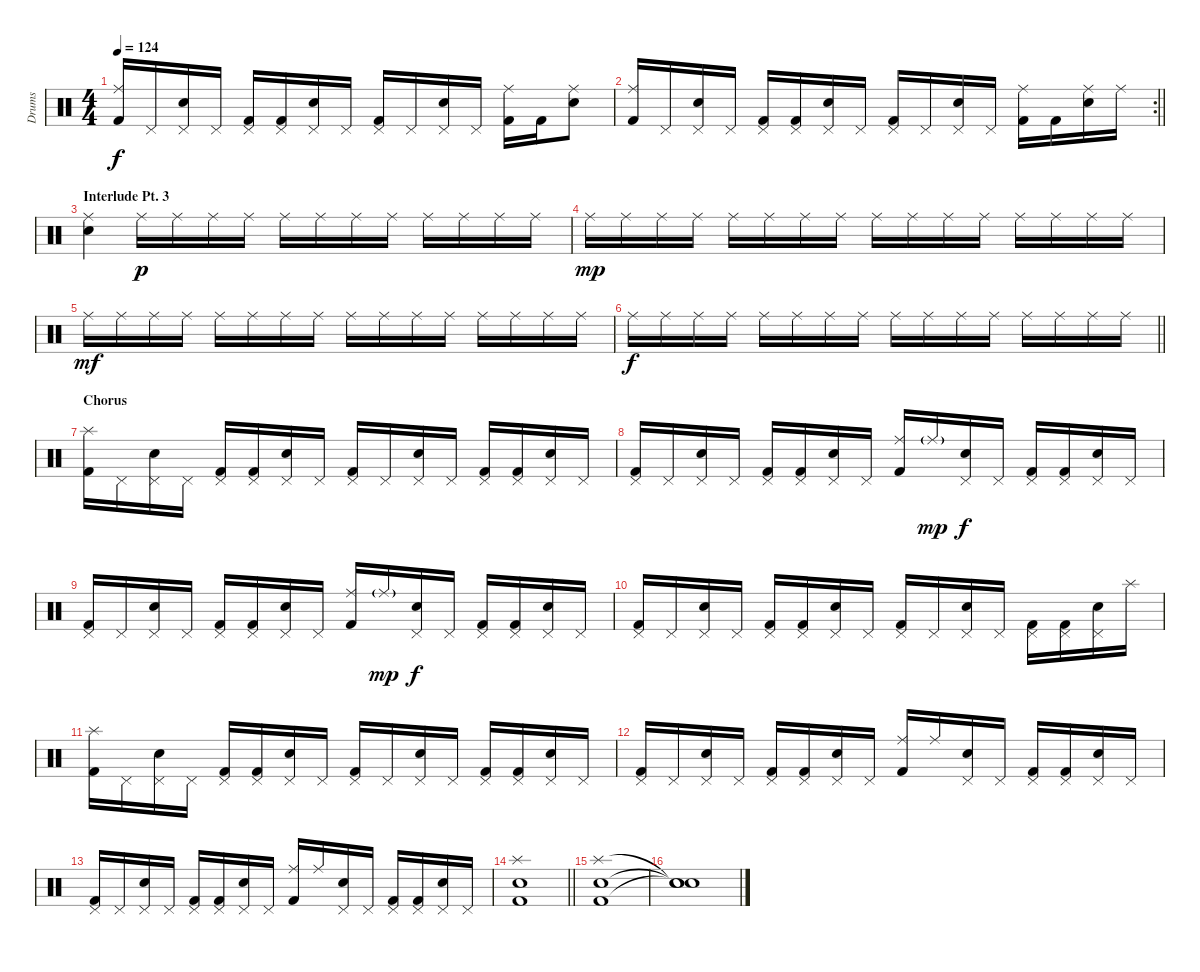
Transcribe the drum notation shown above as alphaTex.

\track ("Drums" "Drums") {instrument percussion}
\staff {score}
\articulation defaults
\ts (4 4)
\tempo 124
\clef neutral
\ks c
("Ride (middle)" "Kick (hit) 2").16{dy f} "Pedal Hi-Hat (hit)".16 ("Pedal Hi-Hat (hit)" "Electric Snare (hit)").16 "Pedal Hi-Hat (hit)".16 ("Pedal Hi-Hat (hit)" "Kick (hit) 2").16 ("Pedal Hi-Hat (hit)" "Kick (hit) 2").16 ("Pedal Hi-Hat (hit)" "Electric Snare (hit)").16 "Pedal Hi-Hat (hit)".16 ("Pedal Hi-Hat (hit)" "Kick (hit) 2").16 "Pedal Hi-Hat (hit)".16 ("Pedal Hi-Hat (hit)" "Electric Snare (hit)").16 "Pedal Hi-Hat (hit)".16 ("Ride (middle)" "Kick (hit) 2").16 "Kick (hit) 2".16 ("Ride (middle)" "Electric Snare (hit)").8 |
\rc 2
\barLineRight lightlight
("Ride (middle)" "Kick (hit) 2").16 "Pedal Hi-Hat (hit)".16 ("Pedal Hi-Hat (hit)" "Electric Snare (hit)").16 "Pedal Hi-Hat (hit)".16 ("Pedal Hi-Hat (hit)" "Kick (hit) 2").16 ("Pedal Hi-Hat (hit)" "Kick (hit) 2").16 ("Pedal Hi-Hat (hit)" "Electric Snare (hit)").16 "Pedal Hi-Hat (hit)".16 ("Pedal Hi-Hat (hit)" "Kick (hit) 2").16 "Pedal Hi-Hat (hit)".16 ("Pedal Hi-Hat (hit)" "Electric Snare (hit)").16 "Pedal Hi-Hat (hit)".16 ("Ride (middle)" "Kick (hit) 2").16 "Kick (hit) 2".16 ("Ride (middle)" "Electric Snare (hit)").16 "Ride (middle)".16 |
\section ("" "Interlude Pt. 3")
("Ride (middle)" "Electric Snare (hit)").4 "Ride (middle)".16{dy p} "Ride (middle)".16 "Ride (middle)".16 "Ride (middle)".16 "Ride (middle)".16 "Ride (middle)".16 "Ride (middle)".16 "Ride (middle)".16 "Ride (middle)".16 "Ride (middle)".16 "Ride (middle)".16 "Ride (middle)".16 |
"Ride (middle)".16{dy mp} "Ride (middle)".16 "Ride (middle)".16 "Ride (middle)".16 "Ride (middle)".16 "Ride (middle)".16 "Ride (middle)".16 "Ride (middle)".16 "Ride (middle)".16 "Ride (middle)".16 "Ride (middle)".16 "Ride (middle)".16 "Ride (middle)".16 "Ride (middle)".16 "Ride (middle)".16 "Ride (middle)".16 |
"Ride (middle)".16{dy mf} "Ride (middle)".16 "Ride (middle)".16 "Ride (middle)".16 "Ride (middle)".16 "Ride (middle)".16 "Ride (middle)".16 "Ride (middle)".16 "Ride (middle)".16 "Ride (middle)".16 "Ride (middle)".16 "Ride (middle)".16 "Ride (middle)".16 "Ride (middle)".16 "Ride (middle)".16 "Ride (middle)".16 |
\barLineRight lightlight "Ride (middle)".16{dy f} "Ride (middle)".16 "Ride (middle)".16 "Ride (middle)".16 "Ride (middle)".16 "Ride (middle)".16 "Ride (middle)".16 "Ride (middle)".16 "Ride (middle)".16 "Ride (middle)".16 "Ride (middle)".16 "Ride (middle)".16 "Ride (middle)".16 "Ride (middle)".16 "Ride (middle)".16 "Ride (middle)".16
|
\section ("" "Chorus")
("Splash (hit)" "Kick (hit) 2").16 "Pedal Hi-Hat (hit)".16 ("Pedal Hi-Hat (hit)" "Electric Snare (hit)").16 "Pedal Hi-Hat (hit)".16 ("Pedal Hi-Hat (hit)" "Kick (hit) 2").16 ("Pedal Hi-Hat (hit)" "Kick (hit) 2").16 ("Pedal Hi-Hat (hit)" "Electric Snare (hit)").16 "Pedal Hi-Hat (hit)".16 ("Pedal Hi-Hat (hit)" "Kick (hit) 2").16 "Pedal Hi-Hat (hit)".16 ("Pedal Hi-Hat (hit)" "Electric Snare (hit)").16 "Pedal Hi-Hat (hit)".16 ("Pedal Hi-Hat (hit)" "Kick (hit) 2").16 ("Pedal Hi-Hat (hit)" "Kick (hit) 2").16 ("Pedal Hi-Hat (hit)" "Electric Snare (hit)").16 "Pedal Hi-Hat (hit)".16 |
("Pedal Hi-Hat (hit)" "Kick (hit) 2").16 "Pedal Hi-Hat (hit)".16 ("Pedal Hi-Hat (hit)" "Electric Snare (hit)").16 "Pedal Hi-Hat (hit)".16 ("Pedal Hi-Hat (hit)" "Kick (hit) 2").16 ("Pedal Hi-Hat (hit)" "Kick (hit) 2").16 ("Pedal Hi-Hat (hit)" "Electric Snare (hit)").16 "Pedal Hi-Hat (hit)".16 ("Ride (middle)" "Kick (hit) 2").16 "Ride (middle)"{g}.16{dy mp} ("Pedal Hi-Hat (hit)" "Electric Snare (hit)").16{dy f} "Pedal Hi-Hat (hit)".16 ("Pedal Hi-Hat (hit)" "Kick (hit) 2").16 ("Pedal Hi-Hat (hit)" "Kick (hit) 2").16 ("Pedal Hi-Hat (hit)" "Electric Snare (hit)").16 "Pedal Hi-Hat (hit)".16 |
("Pedal Hi-Hat (hit)" "Kick (hit) 2").16 "Pedal Hi-Hat (hit)".16 ("Pedal Hi-Hat (hit)" "Electric Snare (hit)").16 "Pedal Hi-Hat (hit)".16 ("Pedal Hi-Hat (hit)" "Kick (hit) 2").16 ("Pedal Hi-Hat (hit)" "Kick (hit) 2").16 ("Pedal Hi-Hat (hit)" "Electric Snare (hit)").16 "Pedal Hi-Hat (hit)".16 ("Ride (middle)" "Kick (hit) 2").16 "Ride (middle)"{g}.16{dy mp} ("Pedal Hi-Hat (hit)" "Electric Snare (hit)").16{dy f} "Pedal Hi-Hat (hit)".16 ("Pedal Hi-Hat (hit)" "Kick (hit) 2").16 ("Pedal Hi-Hat (hit)" "Kick (hit) 2").16 ("Pedal Hi-Hat (hit)" "Electric Snare (hit)").16 "Pedal Hi-Hat (hit)".16 |
("Pedal Hi-Hat (hit)" "Kick (hit) 2").16 "Pedal Hi-Hat (hit)".16 ("Pedal Hi-Hat (hit)" "Electric Snare (hit)").16 "Pedal Hi-Hat (hit)".16 ("Pedal Hi-Hat (hit)" "Kick (hit) 2").16 ("Pedal Hi-Hat (hit)" "Kick (hit) 2").16 ("Pedal Hi-Hat (hit)" "Electric Snare (hit)").16 "Pedal Hi-Hat (hit)".16 ("Pedal Hi-Hat (hit)" "Kick (hit) 2").16 "Pedal Hi-Hat (hit)".16 ("Pedal Hi-Hat (hit)" "Electric Snare (hit)").16 "Pedal Hi-Hat (hit)".16 ("Pedal Hi-Hat (hit)" "Kick (hit) 2").16 ("Pedal Hi-Hat (hit)" "Kick (hit) 2").16 ("Pedal Hi-Hat (hit)" "Electric Snare (hit)").16 "Splash (hit)".16 |
("Splash (hit)" "Kick (hit) 2").16 "Pedal Hi-Hat (hit)".16 ("Pedal Hi-Hat (hit)" "Electric Snare (hit)").16 "Pedal Hi-Hat (hit)".16 ("Pedal Hi-Hat (hit)" "Kick (hit) 2").16 ("Pedal Hi-Hat (hit)" "Kick (hit) 2").16 ("Pedal Hi-Hat (hit)" "Electric Snare (hit)").16 "Pedal Hi-Hat (hit)".16 ("Pedal Hi-Hat (hit)" "Kick (hit) 2").16 "Pedal Hi-Hat (hit)".16 ("Pedal Hi-Hat (hit)" "Electric Snare (hit)").16 "Pedal Hi-Hat (hit)".16 ("Pedal Hi-Hat (hit)" "Kick (hit) 2").16 ("Pedal Hi-Hat (hit)" "Kick (hit) 2").16 ("Pedal Hi-Hat (hit)" "Electric Snare (hit)").16 "Pedal Hi-Hat (hit)".16 |
("Pedal Hi-Hat (hit)" "Kick (hit) 2").16 "Pedal Hi-Hat (hit)".16 ("Pedal Hi-Hat (hit)" "Electric Snare (hit)").16 "Pedal Hi-Hat (hit)".16 ("Pedal Hi-Hat (hit)" "Kick (hit) 2").16 ("Pedal Hi-Hat (hit)" "Kick (hit) 2").16 ("Pedal Hi-Hat (hit)" "Electric Snare (hit)").16 "Pedal Hi-Hat (hit)".16 ("Ride (middle)" "Kick (hit) 2").16 "Ride (middle)".16 ("Pedal Hi-Hat (hit)" "Electric Snare (hit)").16 "Pedal Hi-Hat (hit)".16 ("Pedal Hi-Hat (hit)" "Kick (hit) 2").16 ("Pedal Hi-Hat (hit)" "Kick (hit) 2").16 ("Pedal Hi-Hat (hit)" "Electric Snare (hit)").16 "Pedal Hi-Hat (hit)".16 |
("Pedal Hi-Hat (hit)" "Kick (hit) 2").16 "Pedal Hi-Hat (hit)".16 ("Pedal Hi-Hat (hit)" "Electric Snare (hit)").16 "Pedal Hi-Hat (hit)".16 ("Pedal Hi-Hat (hit)" "Kick (hit) 2").16 ("Pedal Hi-Hat (hit)" "Kick (hit) 2").16 ("Pedal Hi-Hat (hit)" "Electric Snare (hit)").16 "Pedal Hi-Hat (hit)".16 ("Ride (middle)" "Kick (hit) 2").16 "Ride (middle)".16 ("Pedal Hi-Hat (hit)" "Electric Snare (hit)").16 "Pedal Hi-Hat (hit)".16 ("Pedal Hi-Hat (hit)" "Kick (hit) 2").16 ("Pedal Hi-Hat (hit)" "Kick (hit) 2").16 ("Pedal Hi-Hat (hit)" "Electric Snare (hit)").16 "Pedal Hi-Hat (hit)".16 |
\barLineRight lightlight
("Splash (hit)" "Electric Snare (hit)" "Kick (hit) 2").1 |
("Splash (hit)" "Electric Snare (hit)" "Kick (hit) 2").1 |
("Snare (hit)"{t} "Snare (hit)"{t} "Snare (hit)"{t}).1
